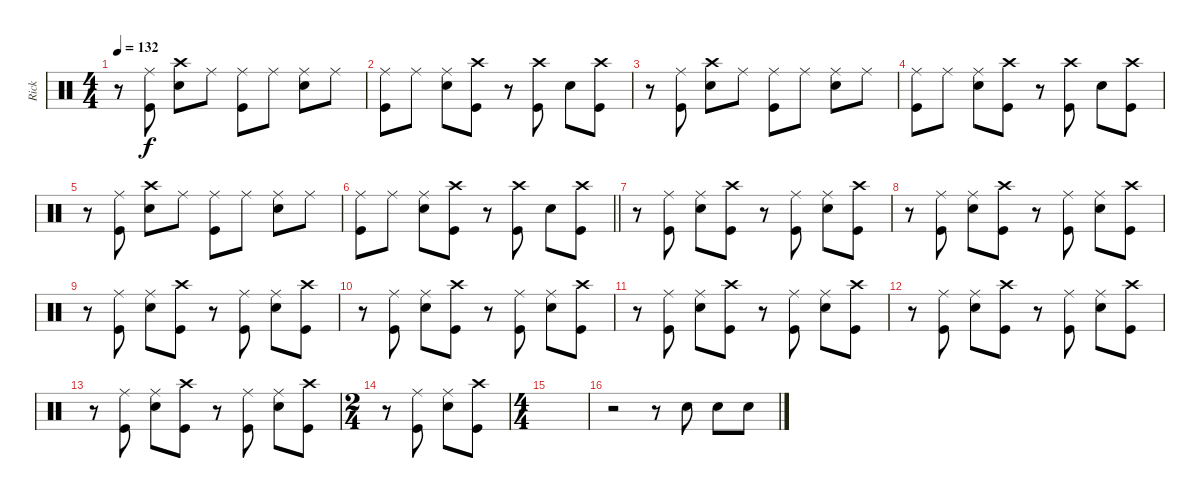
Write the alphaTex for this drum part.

\track ("Rick" "Rick") {instrument percussion}
\staff {score}
\articulation defaults
\ts (4 4)
\tempo 132
\clef neutral
\ks aminor
r.8{dy f} ("Ride (middle)" "Kick (hit)").8 ("Crash high (hit)" "Snare (hit) 2").8 "Ride (middle)".8 ("Ride (middle)" "Kick (hit)").8 "Ride (middle)".8 ("Ride (middle)" "Snare (hit) 2").8 "Ride (middle)".8 |
("Ride (middle)" "Kick (hit)").8 "Ride (middle)".8 ("Ride (middle)" "Snare (hit) 2").8 ("Crash high (hit)" "Kick (hit)").8 r.8 ("Crash high (hit)" "Kick (hit)").8 "Snare (hit) 2".8 ("Crash high (hit)" "Kick (hit)").8 |
r.8 ("Ride (middle)" "Kick (hit)").8 ("Crash high (hit)" "Snare (hit) 2").8 "Ride (middle)".8 ("Ride (middle)" "Kick (hit)").8 "Ride (middle)".8 ("Ride (middle)" "Snare (hit) 2").8 "Ride (middle)".8 |
("Ride (middle)" "Kick (hit)").8 "Ride (middle)".8 ("Ride (middle)" "Snare (hit) 2").8 ("Crash high (hit)" "Kick (hit)").8 r.8 ("Crash high (hit)" "Kick (hit)").8 "Snare (hit) 2".8 ("Crash high (hit)" "Kick (hit)").8 |
r.8 ("Ride (middle)" "Kick (hit)").8 ("Crash high (hit)" "Snare (hit) 2").8 "Ride (middle)".8 ("Ride (middle)" "Kick (hit)").8 "Ride (middle)".8 ("Ride (middle)" "Snare (hit) 2").8 "Ride (middle)".8 |
\barLineRight lightlight
("Ride (middle)" "Kick (hit)").8 "Ride (middle)".8 ("Ride (middle)" "Snare (hit) 2").8 ("Crash high (hit)" "Kick (hit)").8 r.8 ("Crash high (hit)" "Kick (hit)").8 "Snare (hit) 2".8 ("Crash high (hit)" "Kick (hit)").8 |
r.8 ("Ride (middle)" "Kick (hit)").8 ("Ride (middle)" "Snare (hit) 2").8 ("Crash high (hit)" "Kick (hit)").8 r.8 ("Ride (middle)" "Kick (hit)").8 ("Ride (middle)" "Snare (hit) 2").8 ("Crash high (hit)" "Kick (hit)").8 |
r.8 ("Ride (middle)" "Kick (hit)").8 ("Ride (middle)" "Snare (hit) 2").8 ("Crash high (hit)" "Kick (hit)").8 r.8 ("Ride (middle)" "Kick (hit)").8 ("Ride (middle)" "Snare (hit) 2").8 ("Crash high (hit)" "Kick (hit)").8 |
r.8 ("Ride (middle)" "Kick (hit)").8 ("Ride (middle)" "Snare (hit) 2").8 ("Crash high (hit)" "Kick (hit)").8 r.8 ("Ride (middle)" "Kick (hit)").8 ("Ride (middle)" "Snare (hit) 2").8 ("Crash high (hit)" "Kick (hit)").8 |
r.8 ("Ride (middle)" "Kick (hit)").8 ("Ride (middle)" "Snare (hit) 2").8 ("Crash high (hit)" "Kick (hit)").8 r.8 ("Ride (middle)" "Kick (hit)").8 ("Ride (middle)" "Snare (hit) 2").8 ("Crash high (hit)" "Kick (hit)").8 |
r.8 ("Ride (middle)" "Kick (hit)").8 ("Ride (middle)" "Snare (hit) 2").8 ("Crash high (hit)" "Kick (hit)").8 r.8 ("Ride (middle)" "Kick (hit)").8 ("Ride (middle)" "Snare (hit) 2").8 ("Crash high (hit)" "Kick (hit)").8 |
r.8 ("Ride (middle)" "Kick (hit)").8 ("Ride (middle)" "Snare (hit) 2").8 ("Crash high (hit)" "Kick (hit)").8 r.8 ("Ride (middle)" "Kick (hit)").8 ("Ride (middle)" "Snare (hit) 2").8 ("Crash high (hit)" "Kick (hit)").8 |
r.8 ("Ride (middle)" "Kick (hit)").8 ("Ride (middle)" "Snare (hit) 2").8 ("Crash high (hit)" "Kick (hit)").8 r.8 ("Ride (middle)" "Kick (hit)").8 ("Ride (middle)" "Snare (hit) 2").8 ("Crash high (hit)" "Kick (hit)").8 |
\ts (2 4)
r.8 ("Ride (middle)" "Kick (hit)").8 ("Ride (middle)" "Snare (hit) 2").8 ("Crash high (hit)" "Kick (hit)").8 |
\ts (4 4)
|
r.2 r.8 "Snare (hit) 2".8 "Snare (hit) 2".8 "Snare (hit) 2".8
